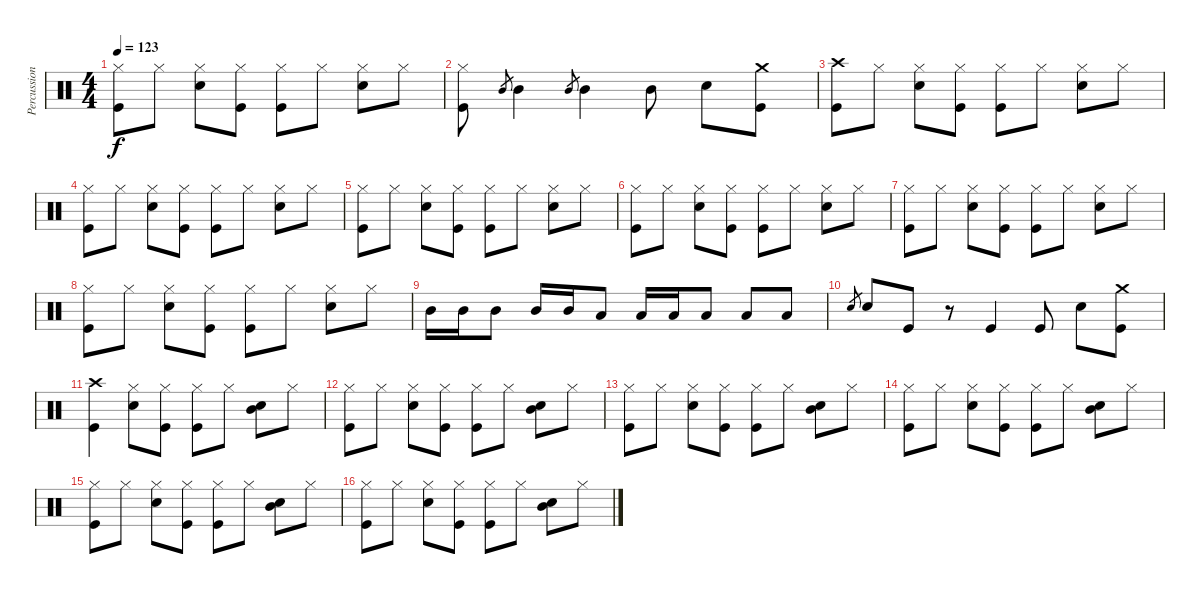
\track ("Percussion" "Percussion") {instrument percussion}
\staff {score}
\articulation defaults
\ts (4 4)
\tempo 123
\clef neutral
\ks c
("Hi-Hat (closed)" "Kick (hit)").8{dy f} "Hi-Hat (closed)".8 ("Hi-Hat (closed)" "Snare (hit) 2").8 ("Hi-Hat (closed)" "Kick (hit)").8 ("Hi-Hat (closed)" "Kick (hit)").8 "Hi-Hat (closed)".8 ("Hi-Hat (closed)" "Snare (hit) 2").8 "Hi-Hat (closed)".8 |
("Hi-Hat (closed)" "Kick (hit)").8 "Mid Tom (hit)".8{gr} "Mid Tom (hit)".4 "Mid Tom (hit)".8{gr} "Mid Tom (hit)".4 "Mid Tom (hit)".8 "Snare (hit) 2".8 ("Crash medium (hit)" "Kick (hit)").8 |
("Crash high (hit)" "Kick (hit)").8 "Hi-Hat (closed)".8 ("Hi-Hat (closed)" "Snare (hit) 2").8 ("Hi-Hat (closed)" "Kick (hit)").8 ("Hi-Hat (closed)" "Kick (hit)").8 "Hi-Hat (closed)".8 ("Hi-Hat (closed)" "Snare (hit) 2").8 "Hi-Hat (closed)".8 |
("Hi-Hat (closed)" "Kick (hit)").8 "Hi-Hat (closed)".8 ("Hi-Hat (closed)" "Snare (hit) 2").8 ("Hi-Hat (closed)" "Kick (hit)").8 ("Hi-Hat (closed)" "Kick (hit)").8 "Hi-Hat (closed)".8 ("Hi-Hat (closed)" "Snare (hit) 2").8 "Hi-Hat (closed)".8 |
("Hi-Hat (closed)" "Kick (hit)").8 "Hi-Hat (closed)".8 ("Hi-Hat (closed)" "Snare (hit) 2").8 ("Hi-Hat (closed)" "Kick (hit)").8 ("Hi-Hat (closed)" "Kick (hit)").8 "Hi-Hat (closed)".8 ("Hi-Hat (closed)" "Snare (hit) 2").8 "Hi-Hat (closed)".8 |
("Hi-Hat (closed)" "Kick (hit)").8 "Hi-Hat (closed)".8 ("Hi-Hat (closed)" "Snare (hit) 2").8 ("Hi-Hat (closed)" "Kick (hit)").8 ("Hi-Hat (closed)" "Kick (hit)").8 "Hi-Hat (closed)".8 ("Hi-Hat (closed)" "Snare (hit) 2").8 "Hi-Hat (closed)".8 |
("Hi-Hat (closed)" "Kick (hit)").8 "Hi-Hat (closed)".8 ("Hi-Hat (closed)" "Snare (hit) 2").8 ("Hi-Hat (closed)" "Kick (hit)").8 ("Hi-Hat (closed)" "Kick (hit)").8 "Hi-Hat (closed)".8 ("Hi-Hat (closed)" "Snare (hit) 2").8 "Hi-Hat (closed)".8 |
("Hi-Hat (closed)" "Kick (hit)").8 "Hi-Hat (closed)".8 ("Hi-Hat (closed)" "Snare (hit) 2").8 ("Hi-Hat (closed)" "Kick (hit)").8 ("Hi-Hat (closed)" "Kick (hit)").8 "Hi-Hat (closed)".8 ("Hi-Hat (closed)" "Snare (hit) 2").8 "Hi-Hat (closed)".8 |
"Mid Tom (hit)".16 "Mid Tom (hit)".16 "Mid Tom (hit)".8 "Mid Tom (hit)".16 "Mid Tom (hit)".16 "Low Tom (hit)".8 "Low Tom (hit)".16 "Low Tom (hit)".16 "Low Tom (hit)".8 "Low Tom (hit)".8 "Low Tom (hit)".8 |
"Snare (hit) 2".8{gr} "Snare (hit) 2".8 "Kick (hit)".8 r.8 "Kick (hit)".4 "Kick (hit)".8 "Snare (hit) 2".8 ("Crash medium (hit)" "Kick (hit)").8 |
("Crash high (hit)" "Kick (hit)").4 ("Hi-Hat (closed)" "Snare (hit) 2").8 ("Hi-Hat (closed)" "Kick (hit)").8 ("Hi-Hat (closed)" "Kick (hit)").8 "Hi-Hat (closed)".8 ("Mid Tom (hit)" "Snare (hit) 2").8 "Hi-Hat (closed)".8 |
("Hi-Hat (closed)" "Kick (hit)").8 "Hi-Hat (closed)".8 ("Hi-Hat (closed)" "Snare (hit) 2").8 ("Hi-Hat (closed)" "Kick (hit)").8 ("Hi-Hat (closed)" "Kick (hit)").8 "Hi-Hat (closed)".8 ("Mid Tom (hit)" "Snare (hit) 2").8 "Hi-Hat (closed)".8 |
("Hi-Hat (closed)" "Kick (hit)").8 "Hi-Hat (closed)".8 ("Hi-Hat (closed)" "Snare (hit) 2").8 ("Hi-Hat (closed)" "Kick (hit)").8 ("Hi-Hat (closed)" "Kick (hit)").8 "Hi-Hat (closed)".8 ("Mid Tom (hit)" "Snare (hit) 2").8 "Hi-Hat (closed)".8 |
("Hi-Hat (closed)" "Kick (hit)").8 "Hi-Hat (closed)".8 ("Hi-Hat (closed)" "Snare (hit) 2").8 ("Hi-Hat (closed)" "Kick (hit)").8 ("Hi-Hat (closed)" "Kick (hit)").8 "Hi-Hat (closed)".8 ("Mid Tom (hit)" "Snare (hit) 2").8 "Hi-Hat (closed)".8 |
("Hi-Hat (closed)" "Kick (hit)").8 "Hi-Hat (closed)".8 ("Hi-Hat (closed)" "Snare (hit) 2").8 ("Hi-Hat (closed)" "Kick (hit)").8 ("Hi-Hat (closed)" "Kick (hit)").8 "Hi-Hat (closed)".8 ("Mid Tom (hit)" "Snare (hit) 2").8 "Hi-Hat (closed)".8 |
("Hi-Hat (closed)" "Kick (hit)").8 "Hi-Hat (closed)".8 ("Hi-Hat (closed)" "Snare (hit) 2").8 ("Hi-Hat (closed)" "Kick (hit)").8 ("Hi-Hat (closed)" "Kick (hit)").8 "Hi-Hat (closed)".8 ("Mid Tom (hit)" "Snare (hit) 2").8 "Hi-Hat (closed)".8
